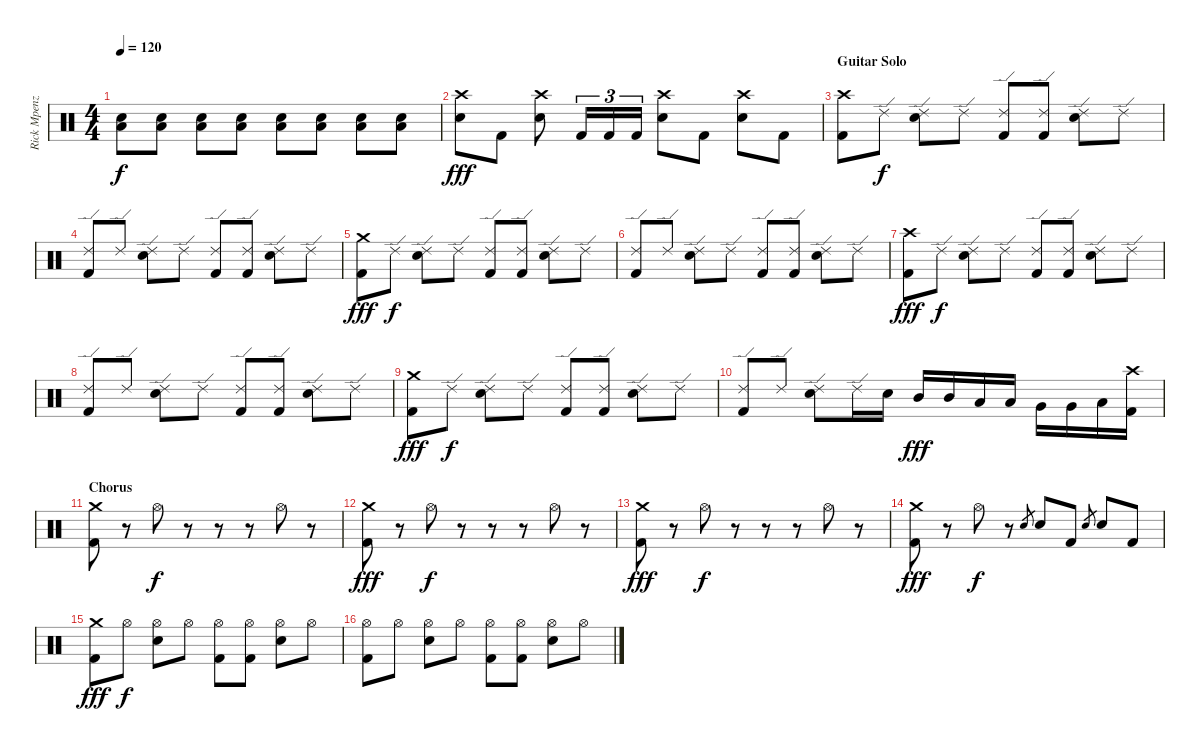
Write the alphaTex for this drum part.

\track ("Rick Mpenza" "Rick Mpenz") {instrument percussion}
\staff {score}
\articulation defaults
\ts (4 4)
\tempo 120
\clef neutral
\ks c
("Low Floor Tom (hit)" "Snare (hit) 2").8{dy f} ("Low Floor Tom (hit)" "Snare (hit) 2").8 ("Low Floor Tom (hit)" "Snare (hit) 2").8 ("Low Floor Tom (hit)" "Snare (hit) 2").8 ("Low Floor Tom (hit)" "Snare (hit) 2").8 ("Low Floor Tom (hit)" "Snare (hit) 2").8 ("Low Floor Tom (hit)" "Snare (hit) 2").8 ("Low Floor Tom (hit)" "Snare (hit) 2").8 |
("Crash high (hit)" "Snare (hit) 2").8{dy fff} "Kick (hit) 2".8 ("Crash high (hit)" "Snare (hit) 2").8 "Kick (hit) 2".16{tu (3 2)} "Kick (hit) 2".16{tu (3 2)} "Kick (hit) 2".16{tu (3 2)} ("Crash high (hit)" "Snare (hit) 2").8 "Kick (hit) 2".8 ("Crash high (hit)" "Snare (hit) 2").8 "Kick (hit) 2".8 |
\section ("" "Guitar Solo")
("Crash high (hit)" "Kick (hit) 2").8 "Ride (edge) 2".8{dy f} ("Ride (edge) 2" "Snare (hit) 2").8 "Ride (edge) 2".8 ("Ride (edge) 2" "Kick (hit) 2").8 ("Ride (edge) 2" "Kick (hit) 2").8 ("Ride (edge) 2" "Snare (hit) 2").8 "Ride (edge) 2".8 |
("Ride (edge) 2" "Kick (hit) 2").8 "Ride (edge) 2".8 ("Ride (edge) 2" "Snare (hit) 2").8 "Ride (edge) 2".8 ("Ride (edge) 2" "Kick (hit) 2").8 ("Ride (edge) 2" "Kick (hit) 2").8 ("Ride (edge) 2" "Snare (hit) 2").8 "Ride (edge) 2".8 |
("Crash medium (hit)" "Kick (hit) 2").8{dy fff} "Ride (edge) 2".8{dy f} ("Ride (edge) 2" "Snare (hit) 2").8 "Ride (edge) 2".8 ("Ride (edge) 2" "Kick (hit) 2").8 ("Ride (edge) 2" "Kick (hit) 2").8 ("Ride (edge) 2" "Snare (hit) 2").8 "Ride (edge) 2".8 |
("Ride (edge) 2" "Kick (hit) 2").8 "Ride (edge) 2".8 ("Ride (edge) 2" "Snare (hit) 2").8 "Ride (edge) 2".8 ("Ride (edge) 2" "Kick (hit) 2").8 ("Ride (edge) 2" "Kick (hit) 2").8 ("Ride (edge) 2" "Snare (hit) 2").8 "Ride (edge) 2".8 |
("Crash high (hit)" "Kick (hit) 2").8{dy fff} "Ride (edge) 2".8{dy f} ("Ride (edge) 2" "Snare (hit) 2").8 "Ride (edge) 2".8 ("Ride (edge) 2" "Kick (hit) 2").8 ("Ride (edge) 2" "Kick (hit) 2").8 ("Ride (edge) 2" "Snare (hit) 2").8 "Ride (edge) 2".8 |
("Ride (edge) 2" "Kick (hit) 2").8 "Ride (edge) 2".8 ("Ride (edge) 2" "Snare (hit) 2").8 "Ride (edge) 2".8 ("Ride (edge) 2" "Kick (hit) 2").8 ("Ride (edge) 2" "Kick (hit) 2").8 ("Ride (edge) 2" "Snare (hit) 2").8 "Ride (edge) 2".8 |
("Crash medium (hit)" "Kick (hit) 2").8{dy fff} "Ride (edge) 2".8{dy f} ("Ride (edge) 2" "Snare (hit) 2").8 "Ride (edge) 2".8 ("Ride (edge) 2" "Kick (hit) 2").8 ("Ride (edge) 2" "Kick (hit) 2").8 ("Ride (edge) 2" "Snare (hit) 2").8 "Ride (edge) 2".8 |
("Ride (edge) 2" "Kick (hit) 2").8 "Ride (edge) 2".8 ("Ride (edge) 2" "Snare (hit) 2").8 "Ride (edge) 2".16 "Snare (hit) 2".16 "Mid Tom (hit)".16{dy fff} "Mid Tom (hit)".16 "Low Tom (hit)".16 "Low Tom (hit)".16 "Very Low Tom (hit)".16 "Very Low Tom (hit)".16 "Low Floor Tom (hit)".16 ("Crash high (hit)" "Kick (hit) 2").16 |
\section ("" "Chorus")
("Crash medium (hit)" "Kick (hit) 2").8 r.8 "Hi-Hat (open)".8{dy f} r.8 r.8 r.8 "Hi-Hat (open)".8 r.8 |
("Crash medium (hit)" "Kick (hit) 2").8{dy fff} r.8 "Hi-Hat (open)".8{dy f} r.8 r.8 r.8 "Hi-Hat (open)".8 r.8 |
("Crash medium (hit)" "Kick (hit) 2").8{dy fff} r.8 "Hi-Hat (open)".8{dy f} r.8 r.8 r.8 "Hi-Hat (open)".8 r.8 |
("Crash medium (hit)" "Kick (hit) 2").8{dy fff} r.8 "Hi-Hat (open)".8{dy f} r.8 "Snare (hit) 2".8{gr} "Snare (hit) 2".8 "Kick (hit) 2".8 "Snare (hit) 2".8{gr} "Snare (hit) 2".8 "Kick (hit) 2".8 |
("Crash medium (hit)" "Kick (hit) 2").8{dy fff} "Hi-Hat (open)".8{dy f} ("Hi-Hat (open)" "Snare (hit) 2").8 "Hi-Hat (open)".8 ("Hi-Hat (open)" "Kick (hit) 2").8 ("Hi-Hat (open)" "Kick (hit) 2").8 ("Hi-Hat (open)" "Snare (hit) 2").8 "Hi-Hat (open)".8 |
("Hi-Hat (open)" "Kick (hit) 2").8 "Hi-Hat (open)".8 ("Hi-Hat (open)" "Snare (hit) 2").8 "Hi-Hat (open)".8 ("Hi-Hat (open)" "Kick (hit) 2").8 ("Hi-Hat (open)" "Kick (hit) 2").8 ("Hi-Hat (open)" "Snare (hit) 2").8 "Hi-Hat (open)".8
